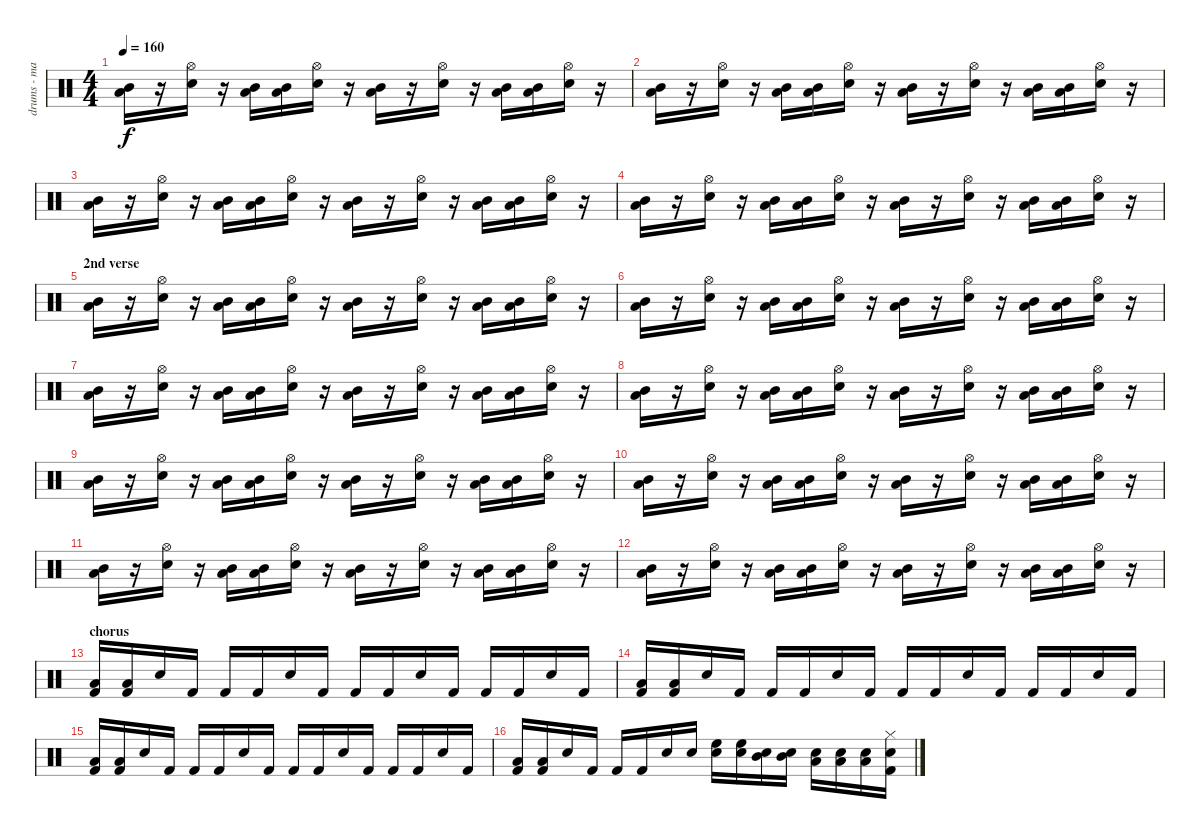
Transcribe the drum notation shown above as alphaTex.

\track ("drums - martin pelc" "drums - ma") {instrument percussion}
\staff {score}
\articulation defaults
\ts (4 4)
\tempo 160
\clef neutral
\ks c
("Low Tom (hit)" "Mid Tom (hit)").16{dy f} r.16 ("Snare (hit) 2" "Hi-Hat (open)").16 r.16 ("Mid Tom (hit)" "Low Tom (hit)").16 ("Mid Tom (hit)" "Low Tom (hit)").16 ("Snare (hit) 2" "Hi-Hat (open)").16 r.16 ("Mid Tom (hit)" "Low Tom (hit)").16 r.16 ("Snare (hit) 2" "Hi-Hat (open)").16 r.16 ("Low Tom (hit)" "Mid Tom (hit)").16 ("Mid Tom (hit)" "Low Tom (hit)").16 ("Snare (hit) 2" "Hi-Hat (open)").16 r.16 |
("Low Tom (hit)" "Mid Tom (hit)").16 r.16 ("Snare (hit) 2" "Hi-Hat (open)").16 r.16 ("Mid Tom (hit)" "Low Tom (hit)").16 ("Mid Tom (hit)" "Low Tom (hit)").16 ("Snare (hit) 2" "Hi-Hat (open)").16 r.16 ("Mid Tom (hit)" "Low Tom (hit)").16 r.16 ("Snare (hit) 2" "Hi-Hat (open)").16 r.16 ("Low Tom (hit)" "Mid Tom (hit)").16 ("Mid Tom (hit)" "Low Tom (hit)").16 ("Snare (hit) 2" "Hi-Hat (open)").16 r.16 |
("Low Tom (hit)" "Mid Tom (hit)").16 r.16 ("Snare (hit) 2" "Hi-Hat (open)").16 r.16 ("Mid Tom (hit)" "Low Tom (hit)").16 ("Mid Tom (hit)" "Low Tom (hit)").16 ("Snare (hit) 2" "Hi-Hat (open)").16 r.16 ("Mid Tom (hit)" "Low Tom (hit)").16 r.16 ("Snare (hit) 2" "Hi-Hat (open)").16 r.16 ("Low Tom (hit)" "Mid Tom (hit)").16 ("Mid Tom (hit)" "Low Tom (hit)").16 ("Snare (hit) 2" "Hi-Hat (open)").16 r.16 |
("Low Tom (hit)" "Mid Tom (hit)").16 r.16 ("Snare (hit) 2" "Hi-Hat (open)").16 r.16 ("Mid Tom (hit)" "Low Tom (hit)").16 ("Mid Tom (hit)" "Low Tom (hit)").16 ("Snare (hit) 2" "Hi-Hat (open)").16 r.16 ("Mid Tom (hit)" "Low Tom (hit)").16 r.16 ("Snare (hit) 2" "Hi-Hat (open)").16 r.16 ("Low Tom (hit)" "Mid Tom (hit)").16 ("Mid Tom (hit)" "Low Tom (hit)").16 ("Snare (hit) 2" "Hi-Hat (open)").16 r.16 |
\section ("" "2nd verse ")
("Low Tom (hit)" "Mid Tom (hit)").16 r.16 ("Snare (hit) 2" "Hi-Hat (open)").16 r.16 ("Mid Tom (hit)" "Low Tom (hit)").16 ("Mid Tom (hit)" "Low Tom (hit)").16 ("Snare (hit) 2" "Hi-Hat (open)").16 r.16 ("Mid Tom (hit)" "Low Tom (hit)").16 r.16 ("Snare (hit) 2" "Hi-Hat (open)").16 r.16 ("Low Tom (hit)" "Mid Tom (hit)").16 ("Mid Tom (hit)" "Low Tom (hit)").16 ("Snare (hit) 2" "Hi-Hat (open)").16 r.16 |
("Low Tom (hit)" "Mid Tom (hit)").16 r.16 ("Snare (hit) 2" "Hi-Hat (open)").16 r.16 ("Mid Tom (hit)" "Low Tom (hit)").16 ("Mid Tom (hit)" "Low Tom (hit)").16 ("Snare (hit) 2" "Hi-Hat (open)").16 r.16 ("Mid Tom (hit)" "Low Tom (hit)").16 r.16 ("Snare (hit) 2" "Hi-Hat (open)").16 r.16 ("Low Tom (hit)" "Mid Tom (hit)").16 ("Mid Tom (hit)" "Low Tom (hit)").16 ("Snare (hit) 2" "Hi-Hat (open)").16 r.16 |
("Low Tom (hit)" "Mid Tom (hit)").16 r.16 ("Snare (hit) 2" "Hi-Hat (open)").16 r.16 ("Mid Tom (hit)" "Low Tom (hit)").16 ("Mid Tom (hit)" "Low Tom (hit)").16 ("Snare (hit) 2" "Hi-Hat (open)").16 r.16 ("Mid Tom (hit)" "Low Tom (hit)").16 r.16 ("Snare (hit) 2" "Hi-Hat (open)").16 r.16 ("Low Tom (hit)" "Mid Tom (hit)").16 ("Mid Tom (hit)" "Low Tom (hit)").16 ("Snare (hit) 2" "Hi-Hat (open)").16 r.16 |
("Low Tom (hit)" "Mid Tom (hit)").16 r.16 ("Snare (hit) 2" "Hi-Hat (open)").16 r.16 ("Mid Tom (hit)" "Low Tom (hit)").16 ("Mid Tom (hit)" "Low Tom (hit)").16 ("Snare (hit) 2" "Hi-Hat (open)").16 r.16 ("Mid Tom (hit)" "Low Tom (hit)").16 r.16 ("Snare (hit) 2" "Hi-Hat (open)").16 r.16 ("Low Tom (hit)" "Mid Tom (hit)").16 ("Mid Tom (hit)" "Low Tom (hit)").16 ("Snare (hit) 2" "Hi-Hat (open)").16 r.16 |
("Low Tom (hit)" "Mid Tom (hit)").16 r.16 ("Snare (hit) 2" "Hi-Hat (open)").16 r.16 ("Mid Tom (hit)" "Low Tom (hit)").16 ("Mid Tom (hit)" "Low Tom (hit)").16 ("Snare (hit) 2" "Hi-Hat (open)").16 r.16 ("Mid Tom (hit)" "Low Tom (hit)").16 r.16 ("Snare (hit) 2" "Hi-Hat (open)").16 r.16 ("Low Tom (hit)" "Mid Tom (hit)").16 ("Mid Tom (hit)" "Low Tom (hit)").16 ("Snare (hit) 2" "Hi-Hat (open)").16 r.16 |
("Low Tom (hit)" "Mid Tom (hit)").16 r.16 ("Snare (hit) 2" "Hi-Hat (open)").16 r.16 ("Mid Tom (hit)" "Low Tom (hit)").16 ("Mid Tom (hit)" "Low Tom (hit)").16 ("Snare (hit) 2" "Hi-Hat (open)").16 r.16 ("Mid Tom (hit)" "Low Tom (hit)").16 r.16 ("Snare (hit) 2" "Hi-Hat (open)").16 r.16 ("Low Tom (hit)" "Mid Tom (hit)").16 ("Mid Tom (hit)" "Low Tom (hit)").16 ("Snare (hit) 2" "Hi-Hat (open)").16 r.16 |
("Low Tom (hit)" "Mid Tom (hit)").16 r.16 ("Snare (hit) 2" "Hi-Hat (open)").16 r.16 ("Mid Tom (hit)" "Low Tom (hit)").16 ("Mid Tom (hit)" "Low Tom (hit)").16 ("Snare (hit) 2" "Hi-Hat (open)").16 r.16 ("Mid Tom (hit)" "Low Tom (hit)").16 r.16 ("Snare (hit) 2" "Hi-Hat (open)").16 r.16 ("Low Tom (hit)" "Mid Tom (hit)").16 ("Mid Tom (hit)" "Low Tom (hit)").16 ("Snare (hit) 2" "Hi-Hat (open)").16 r.16 |
("Low Tom (hit)" "Mid Tom (hit)").16 r.16 ("Snare (hit) 2" "Hi-Hat (open)").16 r.16 ("Mid Tom (hit)" "Low Tom (hit)").16 ("Mid Tom (hit)" "Low Tom (hit)").16 ("Snare (hit) 2" "Hi-Hat (open)").16 r.16 ("Mid Tom (hit)" "Low Tom (hit)").16 r.16 ("Snare (hit) 2" "Hi-Hat (open)").16 r.16 ("Low Tom (hit)" "Mid Tom (hit)").16 ("Mid Tom (hit)" "Low Tom (hit)").16 ("Snare (hit) 2" "Hi-Hat (open)").16 r.16 |
\section ("" "chorus")
("Low Floor Tom (hit)" "Kick (hit) 2").16 ("Low Floor Tom (hit)" "Kick (hit) 2").16 "Snare (hit) 2".16 "Kick (hit) 2".16 "Kick (hit) 2".16 "Kick (hit) 2".16 "Snare (hit) 2".16 "Kick (hit) 2".16 "Kick (hit) 2".16 "Kick (hit) 2".16 "Snare (hit) 2".16 "Kick (hit) 2".16 "Kick (hit) 2".16 "Kick (hit) 2".16 "Snare (hit) 2".16 "Kick (hit) 2".16 |
("Low Floor Tom (hit)" "Kick (hit) 2").16 ("Low Floor Tom (hit)" "Kick (hit) 2").16 "Snare (hit) 2".16 "Kick (hit) 2".16 "Kick (hit) 2".16 "Kick (hit) 2".16 "Snare (hit) 2".16 "Kick (hit) 2".16 "Kick (hit) 2".16 "Kick (hit) 2".16 "Snare (hit) 2".16 "Kick (hit) 2".16 "Kick (hit) 2".16 "Kick (hit) 2".16 "Snare (hit) 2".16 "Kick (hit) 2".16 |
("Low Floor Tom (hit)" "Kick (hit) 2").16 ("Low Floor Tom (hit)" "Kick (hit) 2").16 "Snare (hit) 2".16 "Kick (hit) 2".16 "Kick (hit) 2".16 "Kick (hit) 2".16 "Snare (hit) 2".16 "Kick (hit) 2".16 "Kick (hit) 2".16 "Kick (hit) 2".16 "Snare (hit) 2".16 "Kick (hit) 2".16 "Kick (hit) 2".16 "Kick (hit) 2".16 "Snare (hit) 2".16 "Kick (hit) 2".16 |
("Low Floor Tom (hit)" "Kick (hit) 2").16 ("Low Floor Tom (hit)" "Kick (hit) 2").16 "Snare (hit) 2".16 "Kick (hit) 2".16 "Kick (hit) 2".16 "Kick (hit) 2".16 "Snare (hit) 2".16 "Snare (hit) 2".16 ("Snare (hit) 2" "High Floor Tom (hit)").16 ("Snare (hit) 2" "High Floor Tom (hit)").16 ("Snare (hit) 2" "Mid Tom (hit)").16 ("Snare (hit) 2" "Mid Tom (hit)").16 ("Snare (hit) 2" "Low Tom (hit)").16 ("Snare (hit) 2" "Low Tom (hit)").16 ("Snare (hit) 2" "Low Floor Tom (hit)").16 ("Snare (hit) 2" "Kick (hit) 2" "Hi-Hat (closed)").16
